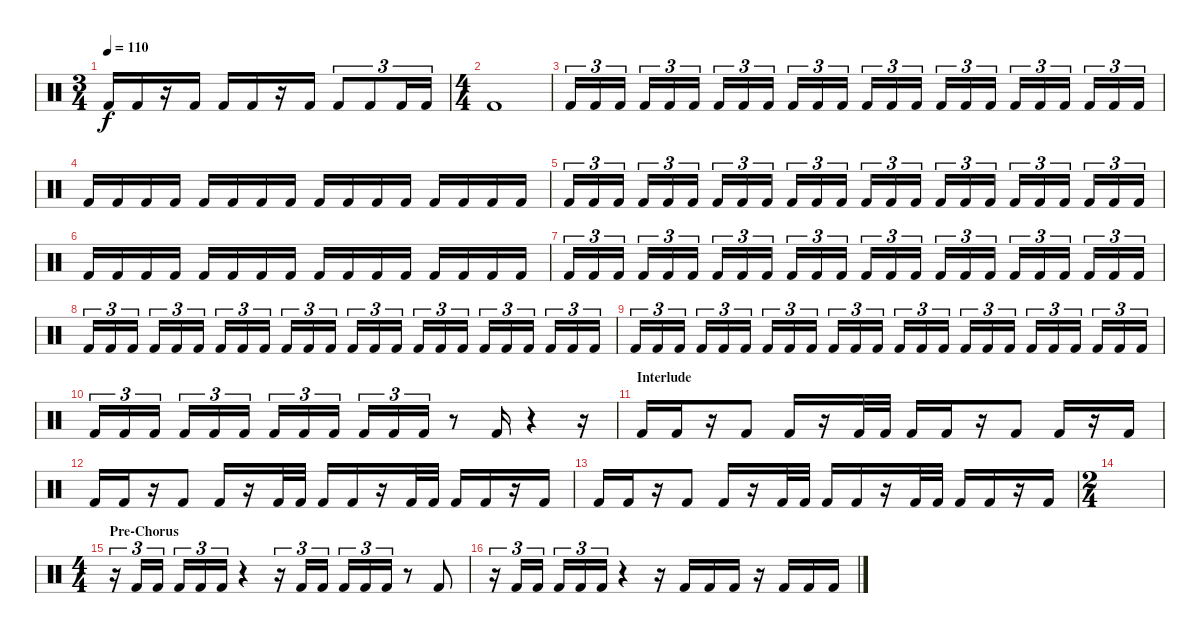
\track "" {instrument percussion}
\staff {score}
\articulation defaults
\ts (3 4)
\tempo 110
\clef neutral
\ks c "Kick (hit) 2".16{dy f} "Kick (hit) 2".16
r.16 "Kick (hit) 2".16 "Kick (hit) 2".16 "Kick (hit) 2".16 r.16 "Kick (hit) 2".16 "Kick (hit) 2".8{tu (3 2)} "Kick (hit) 2".8{tu (3 2)} "Kick (hit) 2".16{tu (3 2)} "Kick (hit) 2".16{tu (3 2)} |
\ts (4 4)
"Kick (hit) 2".1 |
"Kick (hit) 2".16{tu (3 2)} "Kick (hit) 2".16{tu (3 2)} "Kick (hit) 2".16{tu (3 2)} "Kick (hit) 2".16{tu (3 2)} "Kick (hit) 2".16{tu (3 2)} "Kick (hit) 2".16{tu (3 2)} "Kick (hit) 2".16{tu (3 2)} "Kick (hit) 2".16{tu (3 2)} "Kick (hit) 2".16{tu (3 2)} "Kick (hit) 2".16{tu (3 2)} "Kick (hit) 2".16{tu (3 2)} "Kick (hit) 2".16{tu (3 2)} "Kick (hit) 2".16{tu (3 2)} "Kick (hit) 2".16{tu (3 2)} "Kick (hit) 2".16{tu (3 2)} "Kick (hit) 2".16{tu (3 2)} "Kick (hit) 2".16{tu (3 2)} "Kick (hit) 2".16{tu (3 2)} "Kick (hit) 2".16{tu (3 2)} "Kick (hit) 2".16{tu (3 2)} "Kick (hit) 2".16{tu (3 2)} "Kick (hit) 2".16{tu (3 2)} "Kick (hit) 2".16{tu (3 2)} "Kick (hit) 2".16{tu (3 2)} |
"Kick (hit) 2".16 "Kick (hit) 2".16 "Kick (hit) 2".16 "Kick (hit) 2".16 "Kick (hit) 2".16 "Kick (hit) 2".16 "Kick (hit) 2".16 "Kick (hit) 2".16 "Kick (hit) 2".16 "Kick (hit) 2".16 "Kick (hit) 2".16 "Kick (hit) 2".16 "Kick (hit) 2".16 "Kick (hit) 2".16 "Kick (hit) 2".16 "Kick (hit) 2".16 |
"Kick (hit) 2".16{tu (3 2)} "Kick (hit) 2".16{tu (3 2)} "Kick (hit) 2".16{tu (3 2)} "Kick (hit) 2".16{tu (3 2)} "Kick (hit) 2".16{tu (3 2)} "Kick (hit) 2".16{tu (3 2)} "Kick (hit) 2".16{tu (3 2)} "Kick (hit) 2".16{tu (3 2)} "Kick (hit) 2".16{tu (3 2)} "Kick (hit) 2".16{tu (3 2)} "Kick (hit) 2".16{tu (3 2)} "Kick (hit) 2".16{tu (3 2)} "Kick (hit) 2".16{tu (3 2)} "Kick (hit) 2".16{tu (3 2)} "Kick (hit) 2".16{tu (3 2)} "Kick (hit) 2".16{tu (3 2)} "Kick (hit) 2".16{tu (3 2)} "Kick (hit) 2".16{tu (3 2)} "Kick (hit) 2".16{tu (3 2)} "Kick (hit) 2".16{tu (3 2)} "Kick (hit) 2".16{tu (3 2)} "Kick (hit) 2".16{tu (3 2)} "Kick (hit) 2".16{tu (3 2)} "Kick (hit) 2".16{tu (3 2)} |
"Kick (hit) 2".16 "Kick (hit) 2".16 "Kick (hit) 2".16 "Kick (hit) 2".16 "Kick (hit) 2".16 "Kick (hit) 2".16 "Kick (hit) 2".16 "Kick (hit) 2".16 "Kick (hit) 2".16 "Kick (hit) 2".16 "Kick (hit) 2".16 "Kick (hit) 2".16 "Kick (hit) 2".16 "Kick (hit) 2".16 "Kick (hit) 2".16 "Kick (hit) 2".16 |
"Kick (hit) 2".16{tu (3 2)} "Kick (hit) 2".16{tu (3 2)} "Kick (hit) 2".16{tu (3 2)} "Kick (hit) 2".16{tu (3 2)} "Kick (hit) 2".16{tu (3 2)} "Kick (hit) 2".16{tu (3 2)} "Kick (hit) 2".16{tu (3 2)} "Kick (hit) 2".16{tu (3 2)} "Kick (hit) 2".16{tu (3 2)} "Kick (hit) 2".16{tu (3 2)} "Kick (hit) 2".16{tu (3 2)} "Kick (hit) 2".16{tu (3 2)} "Kick (hit) 2".16{tu (3 2)} "Kick (hit) 2".16{tu (3 2)} "Kick (hit) 2".16{tu (3 2)} "Kick (hit) 2".16{tu (3 2)} "Kick (hit) 2".16{tu (3 2)} "Kick (hit) 2".16{tu (3 2)} "Kick (hit) 2".16{tu (3 2)} "Kick (hit) 2".16{tu (3 2)} "Kick (hit) 2".16{tu (3 2)} "Kick (hit) 2".16{tu (3 2)} "Kick (hit) 2".16{tu (3 2)} "Kick (hit) 2".16{tu (3 2)} |
"Kick (hit) 2".16{tu (3 2)} "Kick (hit) 2".16{tu (3 2)} "Kick (hit) 2".16{tu (3 2)} "Kick (hit) 2".16{tu (3 2)} "Kick (hit) 2".16{tu (3 2)} "Kick (hit) 2".16{tu (3 2)} "Kick (hit) 2".16{tu (3 2)} "Kick (hit) 2".16{tu (3 2)} "Kick (hit) 2".16{tu (3 2)} "Kick (hit) 2".16{tu (3 2)} "Kick (hit) 2".16{tu (3 2)} "Kick (hit) 2".16{tu (3 2)} "Kick (hit) 2".16{tu (3 2)} "Kick (hit) 2".16{tu (3 2)} "Kick (hit) 2".16{tu (3 2)} "Kick (hit) 2".16{tu (3 2)} "Kick (hit) 2".16{tu (3 2)} "Kick (hit) 2".16{tu (3 2)} "Kick (hit) 2".16{tu (3 2)} "Kick (hit) 2".16{tu (3 2)} "Kick (hit) 2".16{tu (3 2)} "Kick (hit) 2".16{tu (3 2)} "Kick (hit) 2".16{tu (3 2)} "Kick (hit) 2".16{tu (3 2)} |
"Kick (hit) 2".16{tu (3 2)} "Kick (hit) 2".16{tu (3 2)} "Kick (hit) 2".16{tu (3 2)} "Kick (hit) 2".16{tu (3 2)} "Kick (hit) 2".16{tu (3 2)} "Kick (hit) 2".16{tu (3 2)} "Kick (hit) 2".16{tu (3 2)} "Kick (hit) 2".16{tu (3 2)} "Kick (hit) 2".16{tu (3 2)} "Kick (hit) 2".16{tu (3 2)} "Kick (hit) 2".16{tu (3 2)} "Kick (hit) 2".16{tu (3 2)} "Kick (hit) 2".16{tu (3 2)} "Kick (hit) 2".16{tu (3 2)} "Kick (hit) 2".16{tu (3 2)} "Kick (hit) 2".16{tu (3 2)} "Kick (hit) 2".16{tu (3 2)} "Kick (hit) 2".16{tu (3 2)} "Kick (hit) 2".16{tu (3 2)} "Kick (hit) 2".16{tu (3 2)} "Kick (hit) 2".16{tu (3 2)} "Kick (hit) 2".16{tu (3 2)} "Kick (hit) 2".16{tu (3 2)} "Kick (hit) 2".16{tu (3 2)} |
"Kick (hit) 2".16{tu (3 2)} "Kick (hit) 2".16{tu (3 2)} "Kick (hit) 2".16{tu (3 2)} "Kick (hit) 2".16{tu (3 2)} "Kick (hit) 2".16{tu (3 2)} "Kick (hit) 2".16{tu (3 2)} "Kick (hit) 2".16{tu (3 2)} "Kick (hit) 2".16{tu (3 2)} "Kick (hit) 2".16{tu (3 2)} "Kick (hit) 2".16{tu (3 2)} "Kick (hit) 2".16{tu (3 2)} "Kick (hit) 2".16{tu (3 2)} r.8 "Kick (hit) 2".16 r.4 r.16 |
\section ("" "Interlude")
"Kick (hit) 2".16 "Kick (hit) 2".16 r.16 "Kick (hit) 2".8 "Kick (hit) 2".16 r.16 "Kick (hit) 2".32 "Kick (hit) 2".32 "Kick (hit) 2".16 "Kick (hit) 2".16 r.16 "Kick (hit) 2".8 "Kick (hit) 2".16 r.16 "Kick (hit) 2".16 |
"Kick (hit) 2".16 "Kick (hit) 2".16 r.16 "Kick (hit) 2".8 "Kick (hit) 2".16 r.16 "Kick (hit) 2".32 "Kick (hit) 2".32 "Kick (hit) 2".16 "Kick (hit) 2".16 r.16 "Kick (hit) 2".32 "Kick (hit) 2".32 "Kick (hit) 2".16 "Kick (hit) 2".16 r.16 "Kick (hit) 2".16 |
"Kick (hit) 2".16 "Kick (hit) 2".16 r.16 "Kick (hit) 2".8 "Kick (hit) 2".16 r.16 "Kick (hit) 2".32 "Kick (hit) 2".32 "Kick (hit) 2".16 "Kick (hit) 2".16 r.16 "Kick (hit) 2".32 "Kick (hit) 2".32 "Kick (hit) 2".16 "Kick (hit) 2".16 r.16 "Kick (hit) 2".16 |
\ts (2 4)
|
\ts (4 4)
\section ("" "Pre-Chorus")
r.16{tu (3 2)} "Kick (hit) 2".16{tu (3 2)} "Kick (hit) 2".16{tu (3 2)} "Kick (hit) 2".16{tu (3 2)} "Kick (hit) 2".16{tu (3 2)} "Kick (hit) 2".16{tu (3 2)} r.4 r.16{tu (3 2)} "Kick (hit) 2".16{tu (3 2)} "Kick (hit) 2".16{tu (3 2)} "Kick (hit) 2".16{tu (3 2)} "Kick (hit) 2".16{tu (3 2)} "Kick (hit) 2".16{tu (3 2)} r.8 "Kick (hit) 2".8 |
r.16{tu (3 2)} "Kick (hit) 2".16{tu (3 2)} "Kick (hit) 2".16{tu (3 2)} "Kick (hit) 2".16{tu (3 2)} "Kick (hit) 2".16{tu (3 2)} "Kick (hit) 2".16{tu (3 2)} r.4 r.16 "Kick (hit) 2".16 "Kick (hit) 2".16 "Kick (hit) 2".16 r.16 "Kick (hit) 2".16 "Kick (hit) 2".16 "Kick (hit) 2".16
